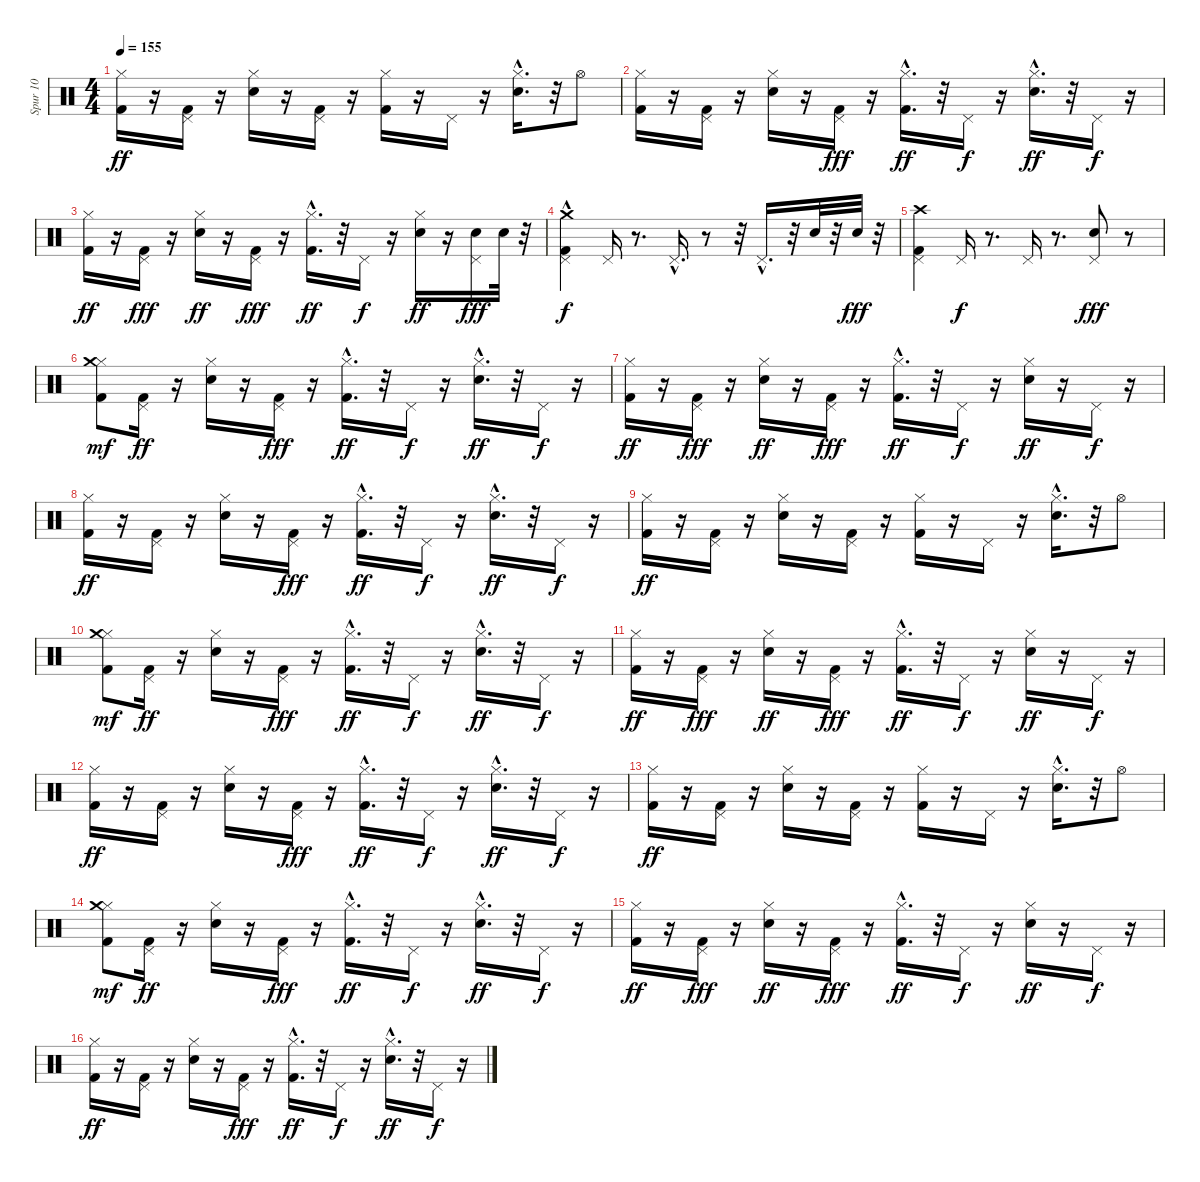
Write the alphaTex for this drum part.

\track ("Spur 10" "Spur 10") {instrument percussion}
\staff {score}
\articulation defaults
\ts (4 4)
\tempo 155
\clef neutral
\ks c
("Kick (hit) 2" "Hi-Hat (closed)").16{dy ff} r.16 ("Kick (hit) 2" "Pedal Hi-Hat (hit)").16 r.16 ("Snare (hit) 2" "Hi-Hat (closed)").16 r.16 ("Kick (hit) 2" "Pedal Hi-Hat (hit)").16 r.16 ("Kick (hit) 2" "Hi-Hat (closed)").16 r.16 "Pedal Hi-Hat (hit)".16 r.16 ("Snare (hit) 2"{hac} "Hi-Hat (closed)").16{d} r.32 "Hi-Hat (open)".8 |
("Kick (hit) 2" "Hi-Hat (closed)").16 r.16 ("Kick (hit) 2" "Pedal Hi-Hat (hit)").16 r.16 ("Snare (hit) 2" "Hi-Hat (closed)").16 r.16 ("Kick (hit) 2" "Pedal Hi-Hat (hit)").16{dy fff} r.16 ("Kick (hit) 2"{hac} "Hi-Hat (closed)").16{d dy ff} r.32 "Pedal Hi-Hat (hit)".16{dy f} r.16 ("Snare (hit) 2"{hac} "Hi-Hat (closed)").16{d dy ff} r.32 "Pedal Hi-Hat (hit)".16{dy f} r.16 |
("Kick (hit) 2" "Hi-Hat (closed)").16{dy ff} r.16 ("Kick (hit) 2" "Pedal Hi-Hat (hit)").16{dy fff} r.16 ("Snare (hit) 2" "Hi-Hat (closed)").16{dy ff} r.16 ("Kick (hit) 2" "Pedal Hi-Hat (hit)").16{dy fff} r.16 ("Kick (hit) 2"{hac} "Hi-Hat (closed)").16{d dy ff} r.32 "Pedal Hi-Hat (hit)".16{dy f} r.16 ("Snare (hit) 2" "Hi-Hat (closed)").16{dy ff} r.16 ("Pedal Hi-Hat (hit)" "Snare (hit) 2").16{dy fff} "Snare (hit) 2".32 r.32 |
("Crash medium (hit)"{hac} "Kick (hit) 2"{hac} "Pedal Hi-Hat (hit)"{hac}).4{dy f} "Pedal Hi-Hat (hit)".16 r.8{d} "Pedal Hi-Hat (hit)"{hac}.16{d} r.8 r.32 "Pedal Hi-Hat (hit)"{hac}.16{d} r.32 "Snare (hit) 2".32 r.32 "Snare (hit) 2".32{dy fff} r.32 |
("Kick (hit) 2" "Crash high (hit)" "Pedal Hi-Hat (hit)").4 "Pedal Hi-Hat (hit)".16{dy f} r.8{d} "Pedal Hi-Hat (hit)".16 r.8{d} ("Pedal Hi-Hat (hit)" "Snare (hit) 2").8{dy fff} r.8 |
("Kick (hit) 2" "Hi-Hat (closed)" "Crash medium (hit)").8{dy mf} ("Kick (hit) 2" "Pedal Hi-Hat (hit)").16{dy ff} r.16 ("Snare (hit) 2" "Hi-Hat (closed)").16 r.16 ("Kick (hit) 2" "Pedal Hi-Hat (hit)").16{dy fff} r.16 ("Kick (hit) 2"{hac} "Hi-Hat (closed)").16{d dy ff} r.32 "Pedal Hi-Hat (hit)".16{dy f} r.16 ("Snare (hit) 2"{hac} "Hi-Hat (closed)").16{d dy ff} r.32 "Pedal Hi-Hat (hit)".16{dy f} r.16 |
("Kick (hit) 2" "Hi-Hat (closed)").16{dy ff} r.16 ("Kick (hit) 2" "Pedal Hi-Hat (hit)").16{dy fff} r.16 ("Snare (hit) 2" "Hi-Hat (closed)").16{dy ff} r.16 ("Kick (hit) 2" "Pedal Hi-Hat (hit)").16{dy fff} r.16 ("Kick (hit) 2"{hac} "Hi-Hat (closed)").16{d dy ff} r.32 "Pedal Hi-Hat (hit)".16{dy f} r.16 ("Snare (hit) 2" "Hi-Hat (closed)").16{dy ff} r.16 "Pedal Hi-Hat (hit)".16{dy f} r.16 |
("Kick (hit) 2" "Hi-Hat (closed)").16{dy ff} r.16 ("Kick (hit) 2" "Pedal Hi-Hat (hit)").16 r.16 ("Snare (hit) 2" "Hi-Hat (closed)").16 r.16 ("Kick (hit) 2" "Pedal Hi-Hat (hit)").16{dy fff} r.16 ("Kick (hit) 2"{hac} "Hi-Hat (closed)").16{d dy ff} r.32 "Pedal Hi-Hat (hit)".16{dy f} r.16 ("Snare (hit) 2"{hac} "Hi-Hat (closed)").16{d dy ff} r.32 "Pedal Hi-Hat (hit)".16{dy f} r.16 |
("Kick (hit) 2" "Hi-Hat (closed)").16{dy ff} r.16 ("Kick (hit) 2" "Pedal Hi-Hat (hit)").16 r.16 ("Snare (hit) 2" "Hi-Hat (closed)").16 r.16 ("Kick (hit) 2" "Pedal Hi-Hat (hit)").16 r.16 ("Kick (hit) 2" "Hi-Hat (closed)").16 r.16 "Pedal Hi-Hat (hit)".16 r.16 ("Snare (hit) 2"{hac} "Hi-Hat (closed)").16{d} r.32 "Hi-Hat (open)".8 |
("Kick (hit) 2" "Hi-Hat (closed)" "Crash medium (hit)").8{dy mf} ("Kick (hit) 2" "Pedal Hi-Hat (hit)").16{dy ff} r.16 ("Snare (hit) 2" "Hi-Hat (closed)").16 r.16 ("Kick (hit) 2" "Pedal Hi-Hat (hit)").16{dy fff} r.16 ("Kick (hit) 2"{hac} "Hi-Hat (closed)").16{d dy ff} r.32 "Pedal Hi-Hat (hit)".16{dy f} r.16 ("Snare (hit) 2"{hac} "Hi-Hat (closed)").16{d dy ff} r.32 "Pedal Hi-Hat (hit)".16{dy f} r.16 |
("Kick (hit) 2" "Hi-Hat (closed)").16{dy ff} r.16 ("Kick (hit) 2" "Pedal Hi-Hat (hit)").16{dy fff} r.16 ("Snare (hit) 2" "Hi-Hat (closed)").16{dy ff} r.16 ("Kick (hit) 2" "Pedal Hi-Hat (hit)").16{dy fff} r.16 ("Kick (hit) 2"{hac} "Hi-Hat (closed)").16{d dy ff} r.32 "Pedal Hi-Hat (hit)".16{dy f} r.16 ("Snare (hit) 2" "Hi-Hat (closed)").16{dy ff} r.16 "Pedal Hi-Hat (hit)".16{dy f} r.16 |
("Kick (hit) 2" "Hi-Hat (closed)").16{dy ff} r.16 ("Kick (hit) 2" "Pedal Hi-Hat (hit)").16 r.16 ("Snare (hit) 2" "Hi-Hat (closed)").16 r.16 ("Kick (hit) 2" "Pedal Hi-Hat (hit)").16{dy fff} r.16 ("Kick (hit) 2"{hac} "Hi-Hat (closed)").16{d dy ff} r.32 "Pedal Hi-Hat (hit)".16{dy f} r.16 ("Snare (hit) 2"{hac} "Hi-Hat (closed)").16{d dy ff} r.32 "Pedal Hi-Hat (hit)".16{dy f} r.16 |
("Kick (hit) 2" "Hi-Hat (closed)").16{dy ff} r.16 ("Kick (hit) 2" "Pedal Hi-Hat (hit)").16 r.16 ("Snare (hit) 2" "Hi-Hat (closed)").16 r.16 ("Kick (hit) 2" "Pedal Hi-Hat (hit)").16 r.16 ("Kick (hit) 2" "Hi-Hat (closed)").16 r.16 "Pedal Hi-Hat (hit)".16 r.16 ("Snare (hit) 2"{hac} "Hi-Hat (closed)").16{d} r.32 "Hi-Hat (open)".8 |
("Kick (hit) 2" "Hi-Hat (closed)" "Crash medium (hit)").8{dy mf} ("Kick (hit) 2" "Pedal Hi-Hat (hit)").16{dy ff} r.16 ("Snare (hit) 2" "Hi-Hat (closed)").16 r.16 ("Kick (hit) 2" "Pedal Hi-Hat (hit)").16{dy fff} r.16 ("Kick (hit) 2"{hac} "Hi-Hat (closed)").16{d dy ff} r.32 "Pedal Hi-Hat (hit)".16{dy f} r.16 ("Snare (hit) 2"{hac} "Hi-Hat (closed)").16{d dy ff} r.32 "Pedal Hi-Hat (hit)".16{dy f} r.16 |
("Kick (hit) 2" "Hi-Hat (closed)").16{dy ff} r.16 ("Kick (hit) 2" "Pedal Hi-Hat (hit)").16{dy fff} r.16 ("Snare (hit) 2" "Hi-Hat (closed)").16{dy ff} r.16 ("Kick (hit) 2" "Pedal Hi-Hat (hit)").16{dy fff} r.16 ("Kick (hit) 2"{hac} "Hi-Hat (closed)").16{d dy ff} r.32 "Pedal Hi-Hat (hit)".16{dy f} r.16 ("Snare (hit) 2" "Hi-Hat (closed)").16{dy ff} r.16 "Pedal Hi-Hat (hit)".16{dy f} r.16 |
("Kick (hit) 2" "Hi-Hat (closed)").16{dy ff} r.16 ("Kick (hit) 2" "Pedal Hi-Hat (hit)").16 r.16 ("Snare (hit) 2" "Hi-Hat (closed)").16 r.16 ("Kick (hit) 2" "Pedal Hi-Hat (hit)").16{dy fff} r.16 ("Kick (hit) 2"{hac} "Hi-Hat (closed)").16{d dy ff} r.32 "Pedal Hi-Hat (hit)".16{dy f} r.16 ("Snare (hit) 2"{hac} "Hi-Hat (closed)").16{d dy ff} r.32 "Pedal Hi-Hat (hit)".16{dy f} r.16
